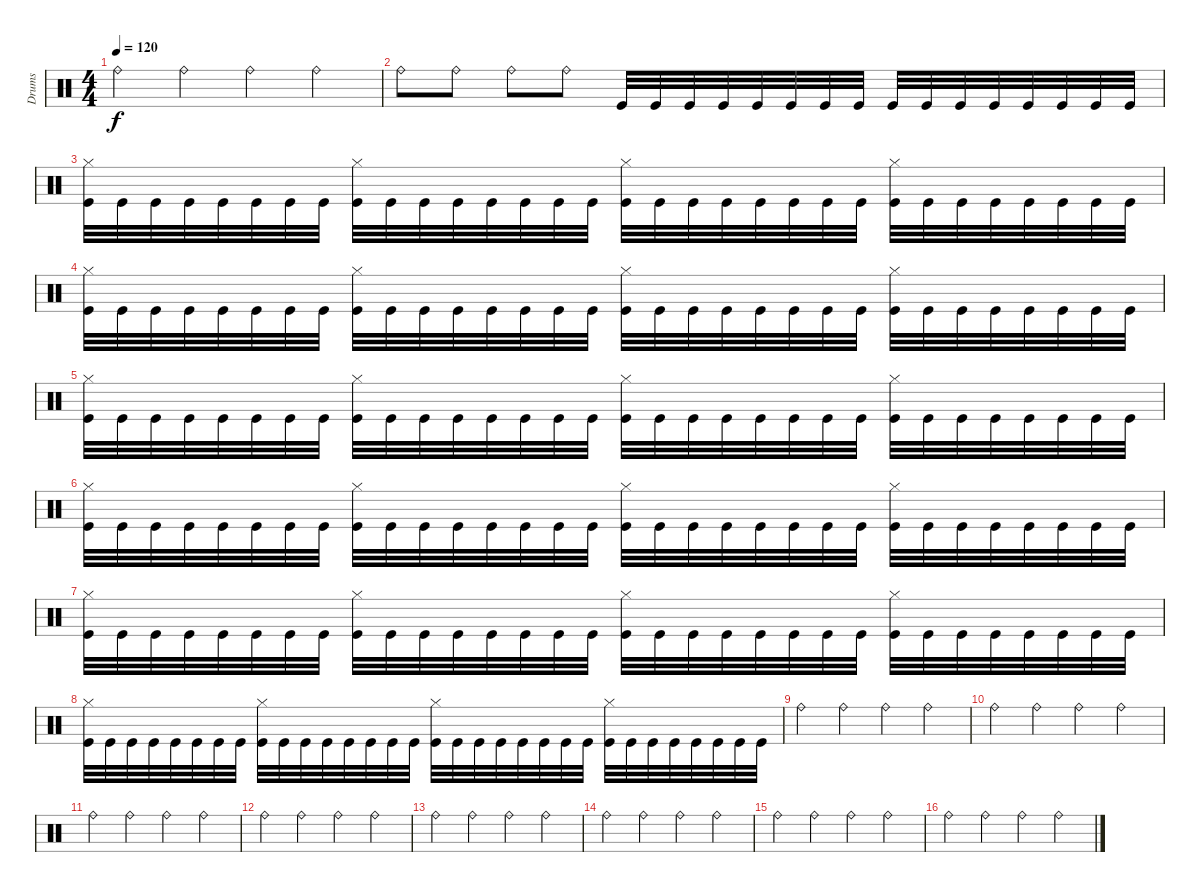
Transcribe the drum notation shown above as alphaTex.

\track ("Drums" "Drums") {instrument percussion}
\staff {score}
\articulation defaults
\ts (4 4)
\tempo 120
\clef neutral
\ks c "Ride (bell)".4{dy f} "Ride (bell)".4 "Ride (bell)".4 "Ride (bell)".4
|
"Ride (bell)".8 "Ride (bell)".8 "Ride (bell)".8 "Ride (bell)".8 "Kick (hit)".32 "Kick (hit)".32 "Kick (hit)".32 "Kick (hit)".32 "Kick (hit)".32 "Kick (hit)".32 "Kick (hit)".32 "Kick (hit)".32 "Kick (hit)".32 "Kick (hit)".32 "Kick (hit)".32 "Kick (hit)".32 "Kick (hit)".32 "Kick (hit)".32 "Kick (hit)".32 "Kick (hit)".32 |
("Hi-Hat (closed)" "Kick (hit)").32 "Kick (hit)".32 "Kick (hit)".32 "Kick (hit)".32 "Kick (hit)".32 "Kick (hit)".32 "Kick (hit)".32 "Kick (hit)".32 ("Hi-Hat (closed)" "Kick (hit)").32 "Kick (hit)".32 "Kick (hit)".32 "Kick (hit)".32 "Kick (hit)".32 "Kick (hit)".32 "Kick (hit)".32 "Kick (hit)".32 ("Hi-Hat (closed)" "Kick (hit)").32 "Kick (hit)".32 "Kick (hit)".32 "Kick (hit)".32 "Kick (hit)".32 "Kick (hit)".32 "Kick (hit)".32 "Kick (hit)".32 ("Hi-Hat (closed)" "Kick (hit)").32 "Kick (hit)".32 "Kick (hit)".32 "Kick (hit)".32 "Kick (hit)".32 "Kick (hit)".32 "Kick (hit)".32 "Kick (hit)".32 |
("Hi-Hat (closed)" "Kick (hit)").32 "Kick (hit)".32 "Kick (hit)".32 "Kick (hit)".32 "Kick (hit)".32 "Kick (hit)".32 "Kick (hit)".32 "Kick (hit)".32 ("Hi-Hat (closed)" "Kick (hit)").32 "Kick (hit)".32 "Kick (hit)".32 "Kick (hit)".32 "Kick (hit)".32 "Kick (hit)".32 "Kick (hit)".32 "Kick (hit)".32 ("Hi-Hat (closed)" "Kick (hit)").32 "Kick (hit)".32 "Kick (hit)".32 "Kick (hit)".32 "Kick (hit)".32 "Kick (hit)".32 "Kick (hit)".32 "Kick (hit)".32 ("Hi-Hat (closed)" "Kick (hit)").32 "Kick (hit)".32 "Kick (hit)".32 "Kick (hit)".32 "Kick (hit)".32 "Kick (hit)".32 "Kick (hit)".32 "Kick (hit)".32 |
("Hi-Hat (closed)" "Kick (hit)").32 "Kick (hit)".32 "Kick (hit)".32 "Kick (hit)".32 "Kick (hit)".32 "Kick (hit)".32 "Kick (hit)".32 "Kick (hit)".32 ("Hi-Hat (closed)" "Kick (hit)").32 "Kick (hit)".32 "Kick (hit)".32 "Kick (hit)".32 "Kick (hit)".32 "Kick (hit)".32 "Kick (hit)".32 "Kick (hit)".32 ("Hi-Hat (closed)" "Kick (hit)").32 "Kick (hit)".32 "Kick (hit)".32 "Kick (hit)".32 "Kick (hit)".32 "Kick (hit)".32 "Kick (hit)".32 "Kick (hit)".32 ("Hi-Hat (closed)" "Kick (hit)").32 "Kick (hit)".32 "Kick (hit)".32 "Kick (hit)".32 "Kick (hit)".32 "Kick (hit)".32 "Kick (hit)".32 "Kick (hit)".32 |
("Hi-Hat (closed)" "Kick (hit)").32 "Kick (hit)".32 "Kick (hit)".32 "Kick (hit)".32 "Kick (hit)".32 "Kick (hit)".32 "Kick (hit)".32 "Kick (hit)".32 ("Hi-Hat (closed)" "Kick (hit)").32 "Kick (hit)".32 "Kick (hit)".32 "Kick (hit)".32 "Kick (hit)".32 "Kick (hit)".32 "Kick (hit)".32 "Kick (hit)".32 ("Hi-Hat (closed)" "Kick (hit)").32 "Kick (hit)".32 "Kick (hit)".32 "Kick (hit)".32 "Kick (hit)".32 "Kick (hit)".32 "Kick (hit)".32 "Kick (hit)".32 ("Hi-Hat (closed)" "Kick (hit)").32 "Kick (hit)".32 "Kick (hit)".32 "Kick (hit)".32 "Kick (hit)".32 "Kick (hit)".32 "Kick (hit)".32 "Kick (hit)".32 |
("Hi-Hat (closed)" "Kick (hit)").32 "Kick (hit)".32 "Kick (hit)".32 "Kick (hit)".32 "Kick (hit)".32 "Kick (hit)".32 "Kick (hit)".32 "Kick (hit)".32 ("Hi-Hat (closed)" "Kick (hit)").32 "Kick (hit)".32 "Kick (hit)".32 "Kick (hit)".32 "Kick (hit)".32 "Kick (hit)".32 "Kick (hit)".32 "Kick (hit)".32 ("Hi-Hat (closed)" "Kick (hit)").32 "Kick (hit)".32 "Kick (hit)".32 "Kick (hit)".32 "Kick (hit)".32 "Kick (hit)".32 "Kick (hit)".32 "Kick (hit)".32 ("Hi-Hat (closed)" "Kick (hit)").32 "Kick (hit)".32 "Kick (hit)".32 "Kick (hit)".32 "Kick (hit)".32 "Kick (hit)".32 "Kick (hit)".32 "Kick (hit)".32 |
("Hi-Hat (closed)" "Kick (hit)").32 "Kick (hit)".32 "Kick (hit)".32 "Kick (hit)".32 "Kick (hit)".32 "Kick (hit)".32 "Kick (hit)".32 "Kick (hit)".32 ("Hi-Hat (closed)" "Kick (hit)").32 "Kick (hit)".32 "Kick (hit)".32 "Kick (hit)".32 "Kick (hit)".32 "Kick (hit)".32 "Kick (hit)".32 "Kick (hit)".32 ("Hi-Hat (closed)" "Kick (hit)").32 "Kick (hit)".32 "Kick (hit)".32 "Kick (hit)".32 "Kick (hit)".32 "Kick (hit)".32 "Kick (hit)".32 "Kick (hit)".32 ("Hi-Hat (closed)" "Kick (hit)").32 "Kick (hit)".32 "Kick (hit)".32 "Kick (hit)".32 "Kick (hit)".32 "Kick (hit)".32 "Kick (hit)".32 "Kick (hit)".32 |
"Ride (bell)".4 "Ride (bell)".4 "Ride (bell)".4 "Ride (bell)".4 |
"Ride (bell)".4 "Ride (bell)".4 "Ride (bell)".4 "Ride (bell)".4 |
"Ride (bell)".4 "Ride (bell)".4 "Ride (bell)".4 "Ride (bell)".4 |
"Ride (bell)".4 "Ride (bell)".4 "Ride (bell)".4 "Ride (bell)".4 |
"Ride (bell)".4 "Ride (bell)".4 "Ride (bell)".4 "Ride (bell)".4 |
"Ride (bell)".4 "Ride (bell)".4 "Ride (bell)".4 "Ride (bell)".4 |
"Ride (bell)".4 "Ride (bell)".4 "Ride (bell)".4 "Ride (bell)".4 |
"Ride (bell)".4 "Ride (bell)".4 "Ride (bell)".4 "Ride (bell)".4
